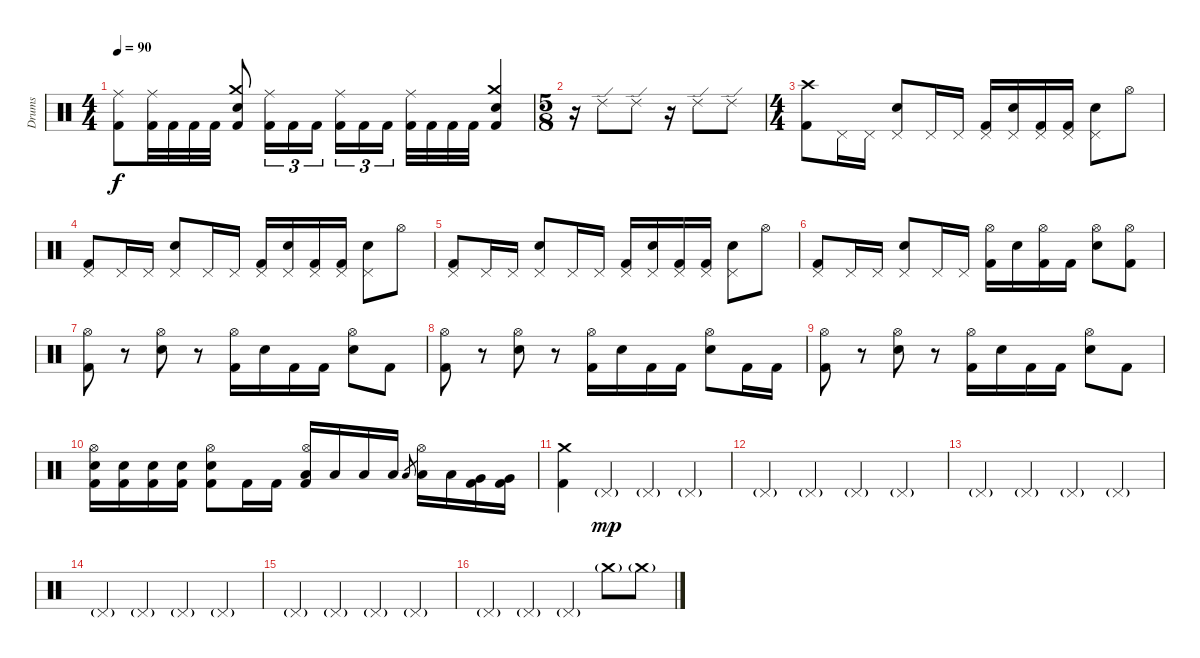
\track ("Drums" "Drums") {instrument percussion}
\staff {score}
\articulation defaults
\ts (4 4)
\tempo 90
\clef neutral
\ks c
("Ride (middle)" "Kick (hit) 2").8{dy f} ("Ride (middle)" "Kick (hit) 2").32 "Kick (hit) 2".32 "Kick (hit) 2".32 "Kick (hit) 2".32 ("Crash medium (hit)" "Electric Snare (hit)" "Kick (hit) 2").8 ("Ride (middle)" "Kick (hit) 2").16{tu (3 2)} "Kick (hit) 2".16{tu (3 2)} "Kick (hit) 2".16{tu (3 2)} ("Ride (middle)" "Kick (hit) 2").16{tu (3 2)} "Kick (hit) 2".16{tu (3 2)} "Kick (hit) 2".16{tu (3 2)} ("Ride (middle)" "Kick (hit) 2").32 "Kick (hit) 2".32 "Kick (hit) 2".32 "Kick (hit) 2".32 ("Crash medium (hit)" "Electric Snare (hit)" "Kick (hit) 2").4 |
\ts (5 8)
r.16 "Ride (edge) 2".8 "Ride (edge) 2".8 r.16 "Ride (edge) 2".8 "Ride (edge) 2".8 |
\ts (4 4)
("Crash high (hit)" "Kick (hit) 2").8 "Pedal Hi-Hat (hit)".16 "Pedal Hi-Hat (hit)".16 ("Pedal Hi-Hat (hit)" "Electric Snare (hit)").8 "Pedal Hi-Hat (hit)".16 "Pedal Hi-Hat (hit)".16 ("Pedal Hi-Hat (hit)" "Kick (hit) 2").16 ("Pedal Hi-Hat (hit)" "Electric Snare (hit)").16 ("Pedal Hi-Hat (hit)" "Kick (hit) 2").16 ("Pedal Hi-Hat (hit)" "Kick (hit) 2").16 ("Pedal Hi-Hat (hit)" "Electric Snare (hit)").8 "Hi-Hat (open)".8 |
("Pedal Hi-Hat (hit)" "Kick (hit) 2").8 "Pedal Hi-Hat (hit)".16 "Pedal Hi-Hat (hit)".16 ("Pedal Hi-Hat (hit)" "Electric Snare (hit)").8 "Pedal Hi-Hat (hit)".16 "Pedal Hi-Hat (hit)".16 ("Pedal Hi-Hat (hit)" "Kick (hit) 2").16 ("Pedal Hi-Hat (hit)" "Electric Snare (hit)").16 ("Pedal Hi-Hat (hit)" "Kick (hit) 2").16 ("Pedal Hi-Hat (hit)" "Kick (hit) 2").16 ("Pedal Hi-Hat (hit)" "Electric Snare (hit)").8 "Hi-Hat (open)".8 |
("Pedal Hi-Hat (hit)" "Kick (hit) 2").8 "Pedal Hi-Hat (hit)".16 "Pedal Hi-Hat (hit)".16 ("Pedal Hi-Hat (hit)" "Electric Snare (hit)").8 "Pedal Hi-Hat (hit)".16 "Pedal Hi-Hat (hit)".16 ("Pedal Hi-Hat (hit)" "Kick (hit) 2").16 ("Pedal Hi-Hat (hit)" "Electric Snare (hit)").16 ("Pedal Hi-Hat (hit)" "Kick (hit) 2").16 ("Pedal Hi-Hat (hit)" "Kick (hit) 2").16 ("Pedal Hi-Hat (hit)" "Electric Snare (hit)").8 "Hi-Hat (open)".8 |
("Pedal Hi-Hat (hit)" "Kick (hit) 2").8 "Pedal Hi-Hat (hit)".16 "Pedal Hi-Hat (hit)".16 ("Pedal Hi-Hat (hit)" "Electric Snare (hit)").8 "Pedal Hi-Hat (hit)".16 "Pedal Hi-Hat (hit)".16 ("Hi-Hat (open)" "Kick (hit) 2").16 "Electric Snare (hit)".16 ("Hi-Hat (open)" "Kick (hit) 2").16 "Kick (hit) 2".16 ("Hi-Hat (open)" "Electric Snare (hit)").8 ("Hi-Hat (open)" "Kick (hit) 2").8 |
("Hi-Hat (open)" "Kick (hit) 2").8 r.8 ("Hi-Hat (open)" "Electric Snare (hit)").8 r.8 ("Hi-Hat (open)" "Kick (hit) 2").16 "Electric Snare (hit)".16 "Kick (hit) 2".16 "Kick (hit) 2".16 ("Hi-Hat (open)" "Electric Snare (hit)").8 "Kick (hit) 2".8 |
("Hi-Hat (open)" "Kick (hit) 2").8 r.8 ("Hi-Hat (open)" "Electric Snare (hit)").8 r.8 ("Hi-Hat (open)" "Kick (hit) 2").16 "Electric Snare (hit)".16 "Kick (hit) 2".16 "Kick (hit) 2".16 ("Hi-Hat (open)" "Electric Snare (hit)").8 "Kick (hit) 2".16 "Kick (hit) 2".16 |
("Hi-Hat (open)" "Kick (hit) 2").8 r.8 ("Hi-Hat (open)" "Electric Snare (hit)").8 r.8 ("Hi-Hat (open)" "Kick (hit) 2").16 "Electric Snare (hit)".16 "Kick (hit) 2".16 "Kick (hit) 2".16 ("Hi-Hat (open)" "Electric Snare (hit)").8 "Kick (hit) 2".8 |
("Hi-Hat (open)" "Electric Snare (hit)" "Kick (hit) 2").16 ("Electric Snare (hit)" "Kick (hit) 2").16 ("Electric Snare (hit)" "Kick (hit) 2").16 ("Electric Snare (hit)" "Kick (hit) 2").16 ("Hi-Hat (open)" "Electric Snare (hit)" "Kick (hit) 2").8 "Kick (hit) 2".16 "Kick (hit) 2".16 ("Hi-Hat (open)" "Low Tom (hit)" "Kick (hit) 2").16 "Low Tom (hit)".16 "Low Tom (hit)".16 "Low Tom (hit)".16 "Low Tom (hit)".8{gr} ("Hi-Hat (open)" "Low Tom (hit)").16 "Low Tom (hit)".16 ("Very Low Tom (hit)" "Kick (hit) 2").16 ("Very Low Tom (hit)" "Kick (hit) 2").16 |
("Crash medium (hit)" "Kick (hit) 2").4 "Pedal Hi-Hat (hit)"{g}.4{dy mp} "Pedal Hi-Hat (hit)"{g}.4 "Pedal Hi-Hat (hit)"{g}.4 |
"Pedal Hi-Hat (hit)"{g}.4 "Pedal Hi-Hat (hit)"{g}.4 "Pedal Hi-Hat (hit)"{g}.4 "Pedal Hi-Hat (hit)"{g}.4 |
"Pedal Hi-Hat (hit)"{g}.4 "Pedal Hi-Hat (hit)"{g}.4 "Pedal Hi-Hat (hit)"{g}.4 "Pedal Hi-Hat (hit)"{g}.4 |
"Pedal Hi-Hat (hit)"{g}.4 "Pedal Hi-Hat (hit)"{g}.4 "Pedal Hi-Hat (hit)"{g}.4 "Pedal Hi-Hat (hit)"{g}.4 |
"Pedal Hi-Hat (hit)"{g}.4 "Pedal Hi-Hat (hit)"{g}.4 "Pedal Hi-Hat (hit)"{g}.4 "Pedal Hi-Hat (hit)"{g}.4 |
"Pedal Hi-Hat (hit)"{g}.4 "Pedal Hi-Hat (hit)"{g}.4 "Pedal Hi-Hat (hit)"{g}.4 "Crash medium (hit)"{g}.8 "Crash medium (hit)"{g}.8
